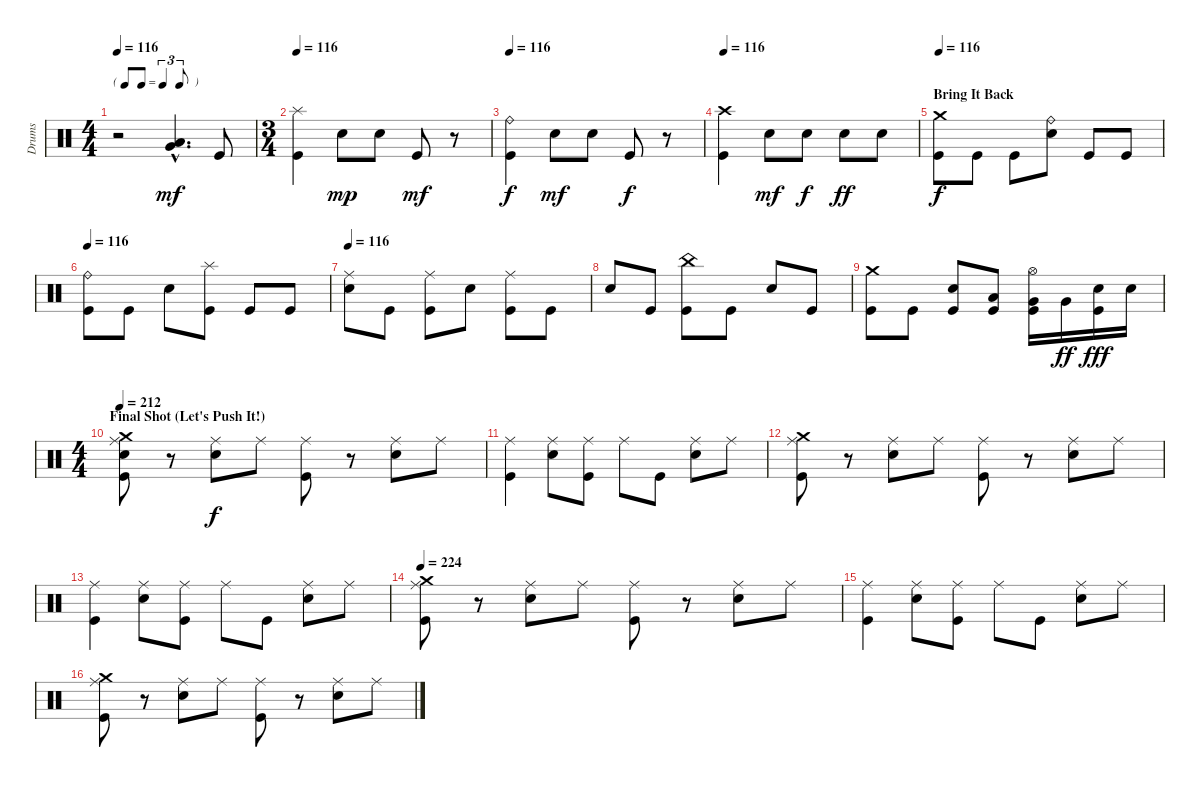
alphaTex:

\track ("Drums" "Drums") {instrument percussion}
\staff {score}
\articulation defaults
\ts (4 4)
\tf triplet8th
\tempo 116
\clef neutral
\ks c
r.2{dy f} ("Low Tom (hit)"{hac} "Very Low Tom (hit)"{hac}).4{d dy mf} "Kick (hit)".8 |
\ts (3 4)
\tempo 116
("Splash (hit)" "Kick (hit)").4 "Electric Snare (hit)".8{dy mp} "Electric Snare (hit)".8 "Kick (hit)".8{dy mf} r.8 |
\tempo 116
("Ride (bell)" "Kick (hit)").4{dy f} "Electric Snare (hit)".8{dy mf} "Electric Snare (hit)".8 "Kick (hit)".8{dy f} r.8 |
\tempo 116
("Crash high (hit)" "Kick (hit)").4 "Electric Snare (hit)".8{dy mf} "Electric Snare (hit)".8{dy f} "Electric Snare (hit)".8{dy ff} "Electric Snare (hit)".8 |
\section ("" "Bring It Back")
\tempo 116
("Crash medium (hit)" "Kick (hit)").8{dy f} "Kick (hit)".8 "Kick (hit)".8 ("Ride (bell)" "Electric Snare (hit)").8 "Kick (hit)".8 "Kick (hit)".8 |
\tempo 116
("Ride (bell)" "Kick (hit)").8 "Kick (hit)".8 "Electric Snare (hit)".8 ("Splash (hit)" "Kick (hit)").8 "Kick (hit)".8 "Kick (hit)".8 |
\tempo 116
("Ride (middle)" "Electric Snare (hit)").8 "Kick (hit)".8 ("Ride (middle)" "Kick (hit)").8 "Electric Snare (hit)".8 ("Ride (middle)" "Kick (hit)").8 "Kick (hit)".8 |
"Electric Snare (hit)".8 "Kick (hit)".8 ("China (hit)" "Kick (hit)").8 "Kick (hit)".8 "Electric Snare (hit)".8 "Kick (hit)".8 |
("Crash medium (hit)" "Kick (hit)").8 "Kick (hit)".8 ("Electric Snare (hit)" "Kick (hit)").8 ("Low Tom (hit)" "Kick (hit)").8 ("Hi-Hat (open)" "Very Low Tom (hit)" "Kick (hit)").16 "Very Low Tom (hit)".16{dy ff} ("Electric Snare (hit)" "Kick (hit)").16{dy fff} "Electric Snare (hit)".16 |
\ts (4 4)
\section ("" "Final Shot (Let's Push It!)")
\tempo 212
("Crash medium (hit)" "Ride (middle)" "Electric Snare (hit)" "Kick (hit)").8 r.8 ("Ride (middle)" "Electric Snare (hit)").8{dy f} "Ride (middle)".8 ("Ride (middle)" "Kick (hit)").8 r.8 ("Ride (middle)" "Electric Snare (hit)").8 "Ride (middle)".8 |
("Ride (middle)" "Kick (hit)").4 ("Ride (middle)" "Electric Snare (hit)").8 ("Ride (middle)" "Kick (hit)").8 "Ride (middle)".8 "Kick (hit)".8 ("Ride (middle)" "Electric Snare (hit)").8 "Ride (middle)".8 |
("Crash medium (hit)" "Ride (middle)" "Kick (hit)").8 r.8 ("Ride (middle)" "Electric Snare (hit)").8 "Ride (middle)".8 ("Ride (middle)" "Kick (hit)").8 r.8 ("Ride (middle)" "Electric Snare (hit)").8 "Ride (middle)".8 |
("Ride (middle)" "Kick (hit)").4 ("Ride (middle)" "Electric Snare (hit)").8 ("Ride (middle)" "Kick (hit)").8 "Ride (middle)".8 "Kick (hit)".8 ("Ride (middle)" "Electric Snare (hit)").8 "Ride (middle)".8 |
\tempo 224
("Crash medium (hit)" "Ride (middle)" "Kick (hit)").8 r.8 ("Ride (middle)" "Electric Snare (hit)").8 "Ride (middle)".8 ("Ride (middle)" "Kick (hit)").8 r.8 ("Ride (middle)" "Electric Snare (hit)").8 "Ride (middle)".8 |
("Ride (middle)" "Kick (hit)").4 ("Ride (middle)" "Electric Snare (hit)").8 ("Ride (middle)" "Kick (hit)").8 "Ride (middle)".8 "Kick (hit)".8 ("Ride (middle)" "Electric Snare (hit)").8 "Ride (middle)".8 |
("Crash medium (hit)" "Ride (middle)" "Kick (hit)").8 r.8 ("Ride (middle)" "Electric Snare (hit)").8 "Ride (middle)".8 ("Ride (middle)" "Kick (hit)").8 r.8 ("Ride (middle)" "Electric Snare (hit)").8 "Ride (middle)".8
